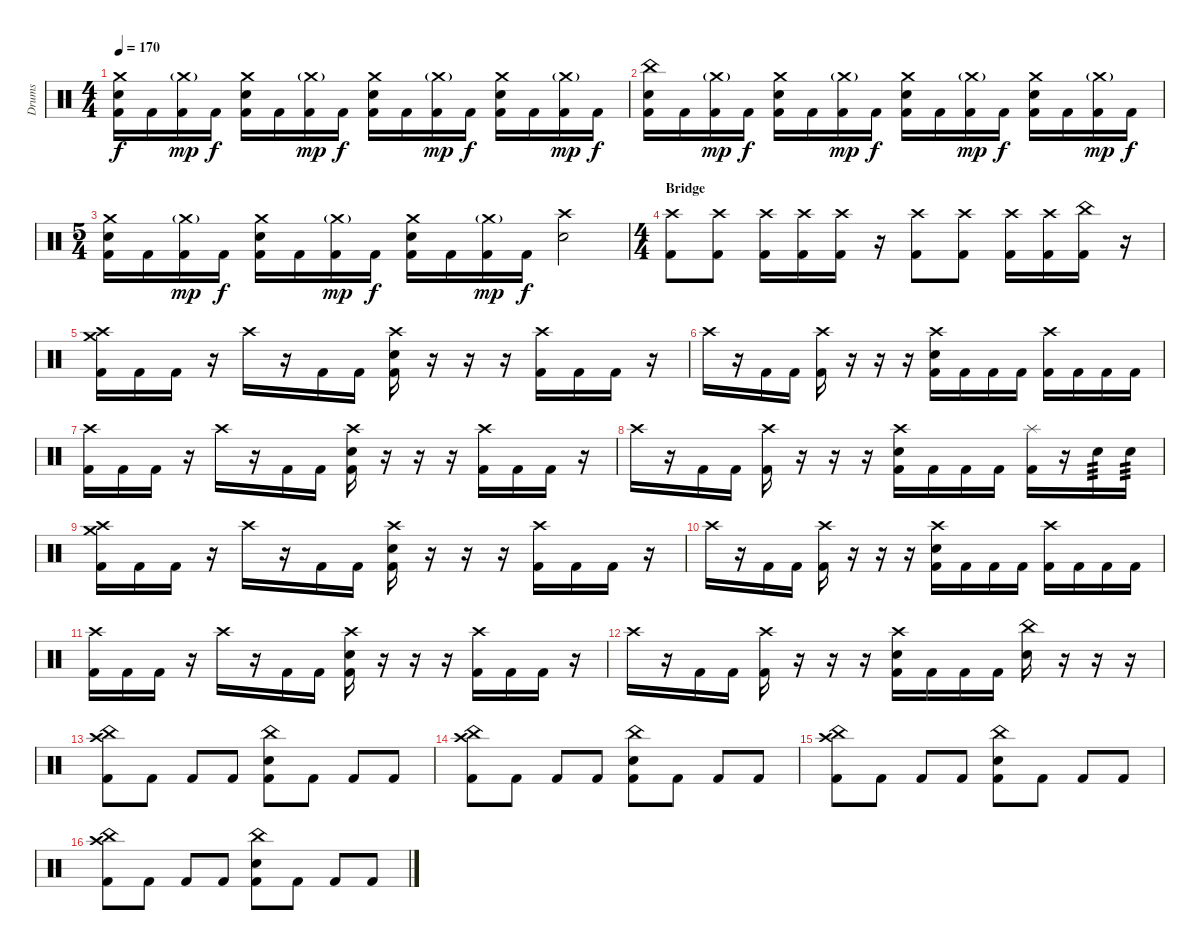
\track ("Drums" "Drums") {instrument percussion}
\staff {score}
\articulation defaults
\ts (4 4)
\tempo 170
\clef neutral
\ks c
("Crash medium (hit)" "Electric Snare (hit)" "Kick (hit) 2").16{dy f} "Kick (hit) 2".16 ("Crash medium (hit)"{g} "Kick (hit) 2").16{dy mp} "Kick (hit) 2".16{dy f} ("Crash medium (hit)" "Electric Snare (hit)" "Kick (hit) 2").16 "Kick (hit) 2".16 ("Crash medium (hit)"{g} "Kick (hit) 2").16{dy mp} "Kick (hit) 2".16{dy f} ("Crash medium (hit)" "Electric Snare (hit)" "Kick (hit) 2").16 "Kick (hit) 2".16 ("Crash medium (hit)"{g} "Kick (hit) 2").16{dy mp} "Kick (hit) 2".16{dy f} ("Crash medium (hit)" "Electric Snare (hit)" "Kick (hit) 2").16 "Kick (hit) 2".16 ("Crash medium (hit)"{g} "Kick (hit) 2").16{dy mp} "Kick (hit) 2".16{dy f} |
("China (hit)" "Electric Snare (hit)" "Kick (hit) 2").16 "Kick (hit) 2".16 ("Crash medium (hit)"{g} "Kick (hit) 2").16{dy mp} "Kick (hit) 2".16{dy f} ("Crash medium (hit)" "Electric Snare (hit)" "Kick (hit) 2").16 "Kick (hit) 2".16 ("Crash medium (hit)"{g} "Kick (hit) 2").16{dy mp} "Kick (hit) 2".16{dy f} ("Crash medium (hit)" "Electric Snare (hit)" "Kick (hit) 2").16 "Kick (hit) 2".16 ("Crash medium (hit)"{g} "Kick (hit) 2").16{dy mp} "Kick (hit) 2".16{dy f} ("Crash medium (hit)" "Electric Snare (hit)" "Kick (hit) 2").16 "Kick (hit) 2".16 ("Crash medium (hit)"{g} "Kick (hit) 2").16{dy mp} "Kick (hit) 2".16{dy f} |
\ts (5 4)
("Crash medium (hit)" "Electric Snare (hit)" "Kick (hit) 2").16 "Kick (hit) 2".16 ("Crash medium (hit)"{g} "Kick (hit) 2").16{dy mp} "Kick (hit) 2".16{dy f} ("Crash medium (hit)" "Electric Snare (hit)" "Kick (hit) 2").16 "Kick (hit) 2".16 ("Crash medium (hit)"{g} "Kick (hit) 2").16{dy mp} "Kick (hit) 2".16{dy f} ("Crash medium (hit)" "Electric Snare (hit)" "Kick (hit) 2").16 "Kick (hit) 2".16 ("Crash medium (hit)"{g} "Kick (hit) 2").16{dy mp} "Kick (hit) 2".16{dy f} ("Crash high (hit)" "Electric Snare (hit)").2 |
\ts (4 4)
\section ("" "Bridge")
("Crash high (hit)" "Kick (hit) 2").8 ("Crash high (hit)" "Kick (hit) 2").8 ("Crash high (hit)" "Kick (hit) 2").16 ("Crash high (hit)" "Kick (hit) 2").16 ("Crash high (hit)" "Kick (hit) 2").16 r.16 ("Crash high (hit)" "Kick (hit) 2").8 ("Crash high (hit)" "Kick (hit) 2").8 ("Crash high (hit)" "Kick (hit) 2").16 ("Crash high (hit)" "Kick (hit) 2").16 ("China (hit)" "Kick (hit) 2").16 r.16 |
("Crash high (hit)" "Crash medium (hit)" "Kick (hit) 2").16 "Kick (hit) 2".16 "Kick (hit) 2".16 r.16 "Crash high (hit)".16 r.16 "Kick (hit) 2".16 "Kick (hit) 2".16 ("Crash high (hit)" "Electric Snare (hit)" "Kick (hit) 2").16 r.16 r.16 r.16 ("Crash high (hit)" "Kick (hit) 2").16 "Kick (hit) 2".16 "Kick (hit) 2".16 r.16 |
"Crash high (hit)".16 r.16 "Kick (hit) 2".16 "Kick (hit) 2".16 ("Crash high (hit)" "Kick (hit) 2").16 r.16 r.16 r.16 ("Crash high (hit)" "Electric Snare (hit)" "Kick (hit) 2").16 "Kick (hit) 2".16 "Kick (hit) 2".16 "Kick (hit) 2".16 ("Crash high (hit)" "Kick (hit) 2").16 "Kick (hit) 2".16 "Kick (hit) 2".16 "Kick (hit) 2".16 |
("Crash high (hit)" "Kick (hit) 2").16 "Kick (hit) 2".16 "Kick (hit) 2".16 r.16 "Crash high (hit)".16 r.16 "Kick (hit) 2".16 "Kick (hit) 2".16 ("Crash high (hit)" "Electric Snare (hit)" "Kick (hit) 2").16 r.16 r.16 r.16 ("Crash high (hit)" "Kick (hit) 2").16 "Kick (hit) 2".16 "Kick (hit) 2".16 r.16 |
"Crash high (hit)".16 r.16 "Kick (hit) 2".16 "Kick (hit) 2".16 ("Crash high (hit)" "Kick (hit) 2").16 r.16 r.16 r.16 ("Crash high (hit)" "Electric Snare (hit)" "Kick (hit) 2").16 "Kick (hit) 2".16 "Kick (hit) 2".16 "Kick (hit) 2".16 ("Splash (hit)" "Kick (hit) 2").16 r.16 "Electric Snare (hit)".16{tp 3} "Electric Snare (hit)".16{tp 3} |
("Crash high (hit)" "Crash medium (hit)" "Kick (hit) 2").16 "Kick (hit) 2".16 "Kick (hit) 2".16 r.16 "Crash high (hit)".16 r.16 "Kick (hit) 2".16 "Kick (hit) 2".16 ("Crash high (hit)" "Electric Snare (hit)" "Kick (hit) 2").16 r.16 r.16 r.16 ("Crash high (hit)" "Kick (hit) 2").16 "Kick (hit) 2".16 "Kick (hit) 2".16 r.16 |
"Crash high (hit)".16 r.16 "Kick (hit) 2".16 "Kick (hit) 2".16 ("Crash high (hit)" "Kick (hit) 2").16 r.16 r.16 r.16 ("Crash high (hit)" "Electric Snare (hit)" "Kick (hit) 2").16 "Kick (hit) 2".16 "Kick (hit) 2".16 "Kick (hit) 2".16 ("Crash high (hit)" "Kick (hit) 2").16 "Kick (hit) 2".16 "Kick (hit) 2".16 "Kick (hit) 2".16 |
("Crash high (hit)" "Kick (hit) 2").16 "Kick (hit) 2".16 "Kick (hit) 2".16 r.16 "Crash high (hit)".16 r.16 "Kick (hit) 2".16 "Kick (hit) 2".16 ("Crash high (hit)" "Electric Snare (hit)" "Kick (hit) 2").16 r.16 r.16 r.16 ("Crash high (hit)" "Kick (hit) 2").16 "Kick (hit) 2".16 "Kick (hit) 2".16 r.16 |
"Crash high (hit)".16 r.16 "Kick (hit) 2".16 "Kick (hit) 2".16 ("Crash high (hit)" "Kick (hit) 2").16 r.16 r.16 r.16 ("Crash high (hit)" "Electric Snare (hit)" "Kick (hit) 2").16 "Kick (hit) 2".16 "Kick (hit) 2".16 "Kick (hit) 2".16 ("China (hit)" "Electric Snare (hit)").16 r.16 r.16 r.16 |
("China (hit)" "Crash high (hit)" "Kick (hit) 2").8 "Kick (hit) 2".8 "Kick (hit) 2".8 "Kick (hit) 2".8 ("China (hit)" "Electric Snare (hit)" "Kick (hit) 2").8 "Kick (hit) 2".8 "Kick (hit) 2".8 "Kick (hit) 2".8 |
("China (hit)" "Crash high (hit)" "Kick (hit) 2").8 "Kick (hit) 2".8 "Kick (hit) 2".8 "Kick (hit) 2".8 ("China (hit)" "Electric Snare (hit)" "Kick (hit) 2").8 "Kick (hit) 2".8 "Kick (hit) 2".8 "Kick (hit) 2".8 |
("China (hit)" "Crash high (hit)" "Kick (hit) 2").8 "Kick (hit) 2".8 "Kick (hit) 2".8 "Kick (hit) 2".8 ("China (hit)" "Electric Snare (hit)" "Kick (hit) 2").8 "Kick (hit) 2".8 "Kick (hit) 2".8 "Kick (hit) 2".8 |
("China (hit)" "Crash high (hit)" "Kick (hit) 2").8 "Kick (hit) 2".8 "Kick (hit) 2".8 "Kick (hit) 2".8 ("China (hit)" "Electric Snare (hit)" "Kick (hit) 2").8 "Kick (hit) 2".8 "Kick (hit) 2".8 "Kick (hit) 2".8
